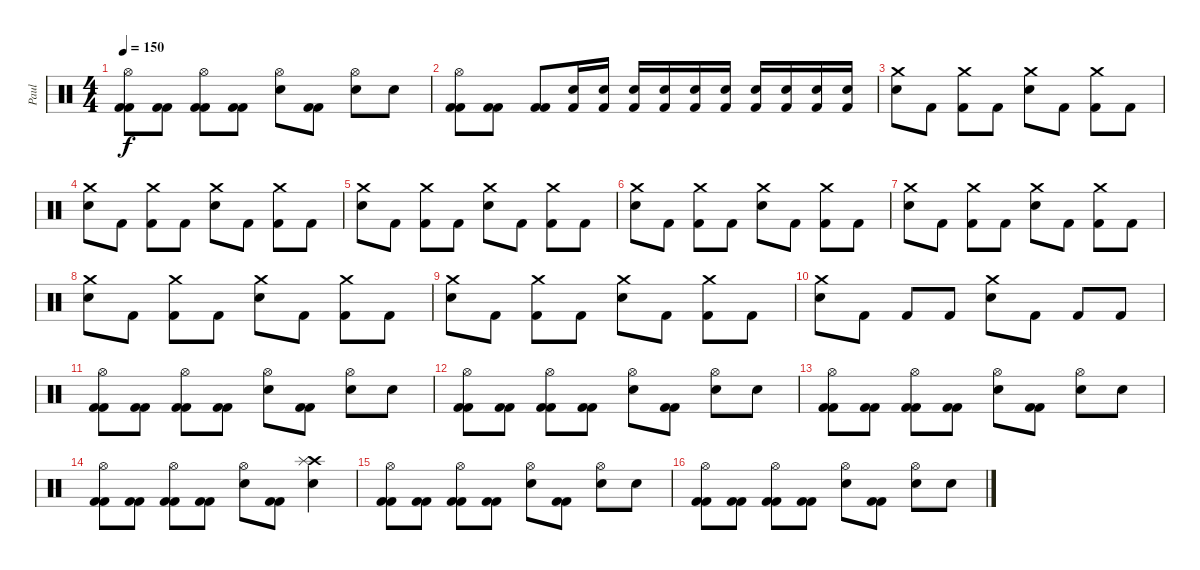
\track ("Paul " "Paul ") {instrument percussion}
\staff {score}
\articulation defaults
\ts (4 4)
\tempo 150
\clef neutral
\ks c
("Hi-Hat (open)" "Kick (hit) 2" "Kick (hit) 2").8{dy f} ("Kick (hit) 2" "Kick (hit) 2").8 ("Hi-Hat (open)" "Kick (hit) 2" "Kick (hit) 2").8 ("Kick (hit) 2" "Kick (hit) 2").8 ("Hi-Hat (open)" "Snare (hit) 2").8 ("Kick (hit) 2" "Kick (hit) 2").8 ("Hi-Hat (open)" "Snare (hit) 2").8 "Snare (hit) 2".8 |
("Hi-Hat (open)" "Kick (hit) 2" "Kick (hit) 2").8 ("Kick (hit) 2" "Kick (hit) 2").8 ("Kick (hit) 2" "Kick (hit) 2").8 ("Electric Snare (hit)" "Kick (hit) 2").16 ("Electric Snare (hit)" "Kick (hit) 2").16 ("Electric Snare (hit)" "Kick (hit) 2").16 ("Electric Snare (hit)" "Kick (hit) 2").16 ("Electric Snare (hit)" "Kick (hit) 2").16 ("Electric Snare (hit)" "Kick (hit) 2").16 ("Electric Snare (hit)" "Kick (hit) 2").16 ("Electric Snare (hit)" "Kick (hit) 2").16 ("Electric Snare (hit)" "Kick (hit) 2").16 ("Electric Snare (hit)" "Kick (hit) 2").16 |
("Crash medium (hit)" "Electric Snare (hit)").8 "Kick (hit) 2".8 ("Crash medium (hit)" "Kick (hit) 2").8 "Kick (hit) 2".8 ("Crash medium (hit)" "Electric Snare (hit)").8 "Kick (hit) 2".8 ("Crash medium (hit)" "Kick (hit) 2").8 "Kick (hit) 2".8 |
("Crash medium (hit)" "Electric Snare (hit)").8 "Kick (hit) 2".8 ("Crash medium (hit)" "Kick (hit) 2").8 "Kick (hit) 2".8 ("Crash medium (hit)" "Electric Snare (hit)").8 "Kick (hit) 2".8 ("Crash medium (hit)" "Kick (hit) 2").8 "Kick (hit) 2".8 |
("Crash medium (hit)" "Electric Snare (hit)").8 "Kick (hit) 2".8 ("Crash medium (hit)" "Kick (hit) 2").8 "Kick (hit) 2".8 ("Crash medium (hit)" "Electric Snare (hit)").8 "Kick (hit) 2".8 ("Crash medium (hit)" "Kick (hit) 2").8 "Kick (hit) 2".8 |
("Crash medium (hit)" "Electric Snare (hit)").8 "Kick (hit) 2".8 ("Crash medium (hit)" "Kick (hit) 2").8 "Kick (hit) 2".8 ("Crash medium (hit)" "Electric Snare (hit)").8 "Kick (hit) 2".8 ("Crash medium (hit)" "Kick (hit) 2").8 "Kick (hit) 2".8 |
("Crash medium (hit)" "Electric Snare (hit)").8 "Kick (hit) 2".8 ("Crash medium (hit)" "Kick (hit) 2").8 "Kick (hit) 2".8 ("Crash medium (hit)" "Electric Snare (hit)").8 "Kick (hit) 2".8 ("Crash medium (hit)" "Kick (hit) 2").8 "Kick (hit) 2".8 |
("Crash medium (hit)" "Electric Snare (hit)").8 "Kick (hit) 2".8 ("Crash medium (hit)" "Kick (hit) 2").8 "Kick (hit) 2".8 ("Crash medium (hit)" "Electric Snare (hit)").8 "Kick (hit) 2".8 ("Crash medium (hit)" "Kick (hit) 2").8 "Kick (hit) 2".8 |
("Crash medium (hit)" "Electric Snare (hit)").8 "Kick (hit) 2".8 ("Crash medium (hit)" "Kick (hit) 2").8 "Kick (hit) 2".8 ("Crash medium (hit)" "Electric Snare (hit)").8 "Kick (hit) 2".8 ("Crash medium (hit)" "Kick (hit) 2").8 "Kick (hit) 2".8 |
("Crash medium (hit)" "Electric Snare (hit)").8 "Kick (hit) 2".8 "Kick (hit) 2".8 "Kick (hit) 2".8 ("Crash medium (hit)" "Electric Snare (hit)").8 "Kick (hit) 2".8 "Kick (hit) 2".8 "Kick (hit) 2".8 |
("Hi-Hat (open)" "Kick (hit) 2" "Kick (hit) 2").8 ("Kick (hit) 2" "Kick (hit) 2").8 ("Hi-Hat (open)" "Kick (hit) 2" "Kick (hit) 2").8 ("Kick (hit) 2" "Kick (hit) 2").8 ("Hi-Hat (open)" "Snare (hit) 2").8 ("Kick (hit) 2" "Kick (hit) 2").8 ("Hi-Hat (open)" "Snare (hit) 2").8 "Snare (hit) 2".8 |
("Hi-Hat (open)" "Kick (hit) 2" "Kick (hit) 2").8 ("Kick (hit) 2" "Kick (hit) 2").8 ("Hi-Hat (open)" "Kick (hit) 2" "Kick (hit) 2").8 ("Kick (hit) 2" "Kick (hit) 2").8 ("Hi-Hat (open)" "Snare (hit) 2").8 ("Kick (hit) 2" "Kick (hit) 2").8 ("Hi-Hat (open)" "Snare (hit) 2").8 "Snare (hit) 2".8 |
("Hi-Hat (open)" "Kick (hit) 2" "Kick (hit) 2").8 ("Kick (hit) 2" "Kick (hit) 2").8 ("Hi-Hat (open)" "Kick (hit) 2" "Kick (hit) 2").8 ("Kick (hit) 2" "Kick (hit) 2").8 ("Hi-Hat (open)" "Snare (hit) 2").8 ("Kick (hit) 2" "Kick (hit) 2").8 ("Hi-Hat (open)" "Snare (hit) 2").8 "Snare (hit) 2".8 |
("Hi-Hat (open)" "Kick (hit) 2" "Kick (hit) 2").8 ("Kick (hit) 2" "Kick (hit) 2").8 ("Hi-Hat (open)" "Kick (hit) 2" "Kick (hit) 2").8 ("Kick (hit) 2" "Kick (hit) 2").8 ("Hi-Hat (open)" "Snare (hit) 2").8 ("Kick (hit) 2" "Kick (hit) 2").8 ("Crash high (hit)" "Splash (hit)" "Snare (hit) 2").4 |
("Hi-Hat (open)" "Kick (hit) 2" "Kick (hit) 2").8 ("Kick (hit) 2" "Kick (hit) 2").8 ("Hi-Hat (open)" "Kick (hit) 2" "Kick (hit) 2").8 ("Kick (hit) 2" "Kick (hit) 2").8 ("Hi-Hat (open)" "Snare (hit) 2").8 ("Kick (hit) 2" "Kick (hit) 2").8 ("Hi-Hat (open)" "Snare (hit) 2").8 "Snare (hit) 2".8 |
("Hi-Hat (open)" "Kick (hit) 2" "Kick (hit) 2").8 ("Kick (hit) 2" "Kick (hit) 2").8 ("Hi-Hat (open)" "Kick (hit) 2" "Kick (hit) 2").8 ("Kick (hit) 2" "Kick (hit) 2").8 ("Hi-Hat (open)" "Snare (hit) 2").8 ("Kick (hit) 2" "Kick (hit) 2").8 ("Hi-Hat (open)" "Snare (hit) 2").8 "Snare (hit) 2".8
